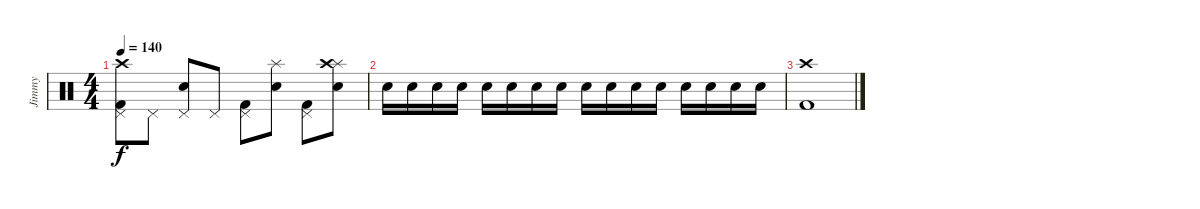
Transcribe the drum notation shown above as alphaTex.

\track ("Jimmy" "Jimmy") {instrument percussion}
\staff {score}
\articulation defaults
\ts (4 4)
\tempo 140
\clef neutral
\ks c
("Kick (hit) 2" "Pedal Hi-Hat (hit)" "Crash high (hit)").8{dy f} "Pedal Hi-Hat (hit)".8 ("Snare (hit) 2" "Pedal Hi-Hat (hit)").8 "Pedal Hi-Hat (hit)".8 ("Kick (hit) 2" "Pedal Hi-Hat (hit)").8 ("Snare (hit) 2" "Splash (hit)").8 ("Kick (hit) 2" "Pedal Hi-Hat (hit)").8 ("Snare (hit) 2" "Splash (hit)" "Crash high (hit)").8 |
"Snare (hit) 2".16 "Snare (hit) 2".16 "Snare (hit) 2".16 "Snare (hit) 2".16 "Snare (hit) 2".16 "Snare (hit) 2".16 "Snare (hit) 2".16 "Snare (hit) 2".16 "Snare (hit) 2".16 "Snare (hit) 2".16 "Snare (hit) 2".16 "Snare (hit) 2".16 "Snare (hit) 2".16 "Snare (hit) 2".16 "Snare (hit) 2".16 "Snare (hit) 2".16 |
("Crash high (hit)" "Kick (hit) 2").1
